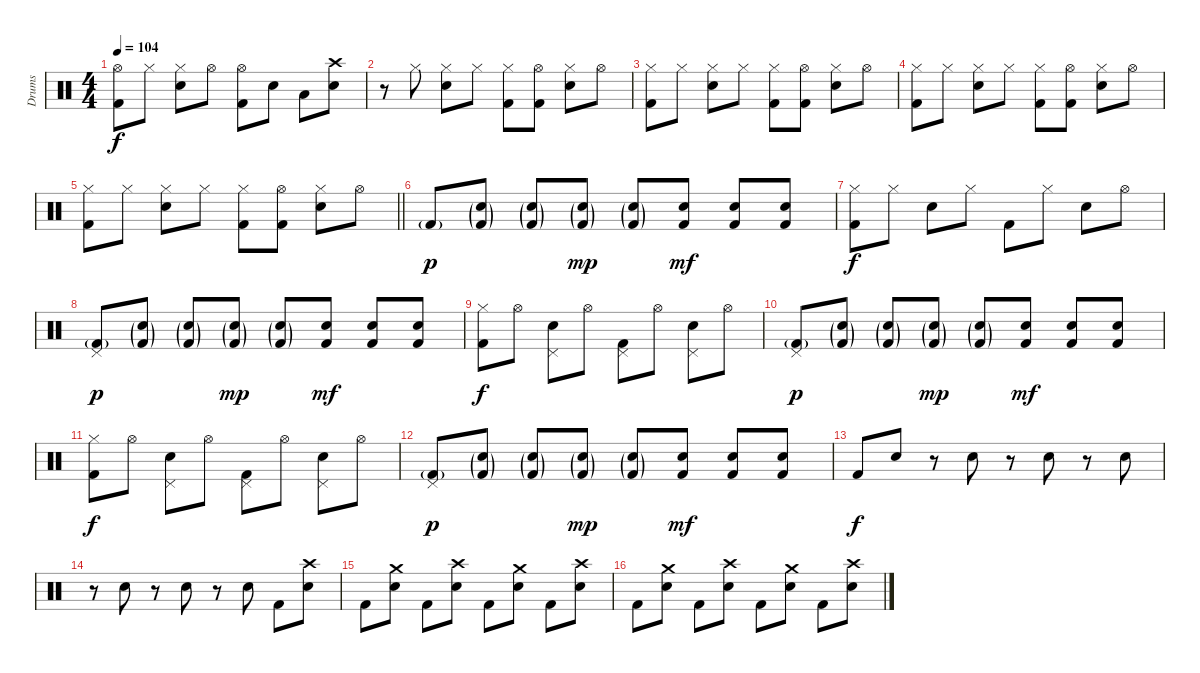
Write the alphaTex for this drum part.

\track ("Drums" "Drums") {instrument percussion}
\staff {score}
\articulation defaults
\ts (4 4)
\tempo 104
\clef neutral
\ks c
("Hi-Hat (open)" "Kick (hit) 2").8{dy f} "Hi-Hat (closed)".8 ("Hi-Hat (closed)" "Snare (hit) 2").8 "Hi-Hat (open)".8 ("Hi-Hat (open)" "Kick (hit) 2").8 "Snare (hit) 2".8 "Low Tom (hit)".8 ("Crash high (hit)" "Snare (hit) 2").8 |
r.8 "Hi-Hat (closed)".8 ("Hi-Hat (closed)" "Snare (hit) 2").8 "Hi-Hat (closed)".8 ("Hi-Hat (closed)" "Kick (hit) 2").8 ("Hi-Hat (open)" "Kick (hit) 2").8 ("Hi-Hat (closed)" "Snare (hit) 2").8 "Hi-Hat (open)".8 |
("Hi-Hat (closed)" "Kick (hit) 2").8 "Hi-Hat (closed)".8 ("Hi-Hat (closed)" "Snare (hit) 2").8 "Hi-Hat (closed)".8 ("Hi-Hat (closed)" "Kick (hit) 2").8 ("Hi-Hat (open)" "Kick (hit) 2").8 ("Hi-Hat (closed)" "Snare (hit) 2").8 "Hi-Hat (open)".8 |
("Hi-Hat (closed)" "Kick (hit) 2").8 "Hi-Hat (closed)".8 ("Hi-Hat (closed)" "Snare (hit) 2").8 "Hi-Hat (closed)".8 ("Hi-Hat (closed)" "Kick (hit) 2").8 ("Hi-Hat (open)" "Kick (hit) 2").8 ("Hi-Hat (closed)" "Snare (hit) 2").8 "Hi-Hat (open)".8 |
\barLineRight lightlight
("Hi-Hat (closed)" "Kick (hit) 2").8 "Hi-Hat (closed)".8 ("Hi-Hat (closed)" "Snare (hit) 2").8 "Hi-Hat (closed)".8 ("Hi-Hat (closed)" "Kick (hit) 2").8 ("Hi-Hat (open)" "Kick (hit) 2").8 ("Hi-Hat (closed)" "Snare (hit) 2").8 "Hi-Hat (open)".8 |
\section ("" "")
"Kick (hit) 2"{g}.8{dy p} ("Snare (hit) 2"{g} "Kick (hit) 2"{g}).8 ("Snare (hit) 2"{g} "Kick (hit) 2"{g}).8 ("Snare (hit) 2"{g} "Kick (hit) 2"{g}).8{dy mp} ("Snare (hit) 2"{g} "Kick (hit) 2"{g}).8 ("Snare (hit) 2" "Kick (hit) 2").8{dy mf} ("Snare (hit) 2" "Kick (hit) 2").8 ("Snare (hit) 2" "Kick (hit) 2").8 |
("Hi-Hat (closed)" "Kick (hit) 2").8{dy f} "Hi-Hat (closed)".8 "Snare (hit) 2".8 "Hi-Hat (closed)".8 "Kick (hit) 2".8 "Hi-Hat (closed)".8 "Snare (hit) 2".8 "Hi-Hat (open)".8 |
("Pedal Hi-Hat (hit)" "Kick (hit) 2"{g}).8{dy p} ("Snare (hit) 2"{g} "Kick (hit) 2"{g}).8 ("Snare (hit) 2"{g} "Kick (hit) 2"{g}).8 ("Snare (hit) 2"{g} "Kick (hit) 2"{g}).8{dy mp} ("Snare (hit) 2"{g} "Kick (hit) 2"{g}).8 ("Snare (hit) 2" "Kick (hit) 2").8{dy mf} ("Snare (hit) 2" "Kick (hit) 2").8 ("Snare (hit) 2" "Kick (hit) 2").8 |
("Hi-Hat (closed)" "Kick (hit) 2").8{dy f} "Hi-Hat (open)".8 ("Pedal Hi-Hat (hit)" "Snare (hit) 2").8 "Hi-Hat (open)".8 ("Pedal Hi-Hat (hit)" "Kick (hit) 2").8 "Hi-Hat (open)".8 ("Pedal Hi-Hat (hit)" "Snare (hit) 2").8 "Hi-Hat (open)".8 |
("Pedal Hi-Hat (hit)" "Kick (hit) 2"{g}).8{dy p} ("Snare (hit) 2"{g} "Kick (hit) 2"{g}).8 ("Snare (hit) 2"{g} "Kick (hit) 2"{g}).8 ("Snare (hit) 2"{g} "Kick (hit) 2"{g}).8{dy mp} ("Snare (hit) 2"{g} "Kick (hit) 2"{g}).8 ("Snare (hit) 2" "Kick (hit) 2").8{dy mf} ("Snare (hit) 2" "Kick (hit) 2").8 ("Snare (hit) 2" "Kick (hit) 2").8 |
("Hi-Hat (closed)" "Kick (hit) 2").8{dy f} "Hi-Hat (open)".8 ("Pedal Hi-Hat (hit)" "Snare (hit) 2").8 "Hi-Hat (open)".8 ("Pedal Hi-Hat (hit)" "Kick (hit) 2").8 "Hi-Hat (open)".8 ("Pedal Hi-Hat (hit)" "Snare (hit) 2").8 "Hi-Hat (open)".8 |
("Pedal Hi-Hat (hit)" "Kick (hit) 2"{g}).8{dy p} ("Snare (hit) 2"{g} "Kick (hit) 2"{g}).8 ("Snare (hit) 2"{g} "Kick (hit) 2"{g}).8 ("Snare (hit) 2"{g} "Kick (hit) 2"{g}).8{dy mp} ("Snare (hit) 2"{g} "Kick (hit) 2"{g}).8 ("Snare (hit) 2" "Kick (hit) 2").8{dy mf} ("Snare (hit) 2" "Kick (hit) 2").8 ("Snare (hit) 2" "Kick (hit) 2").8 |
"Kick (hit) 2".8{dy f} "Snare (hit) 2".8 r.8 "Snare (hit) 2".8 r.8 "Snare (hit) 2".8 r.8 "Snare (hit) 2".8 |
r.8 "Snare (hit) 2".8 r.8 "Snare (hit) 2".8 r.8 "Snare (hit) 2".8 "Kick (hit) 2".8 ("Crash high (hit)" "Snare (hit) 2").8 |
"Kick (hit) 2".8 ("Crash medium (hit)" "Snare (hit) 2").8 "Kick (hit) 2".8 ("Crash high (hit)" "Snare (hit) 2").8 "Kick (hit) 2".8 ("Crash medium (hit)" "Snare (hit) 2").8 "Kick (hit) 2".8 ("Crash high (hit)" "Snare (hit) 2").8 |
"Kick (hit) 2".8 ("Crash medium (hit)" "Snare (hit) 2").8 "Kick (hit) 2".8 ("Crash high (hit)" "Snare (hit) 2").8 "Kick (hit) 2".8 ("Crash medium (hit)" "Snare (hit) 2").8 "Kick (hit) 2".8 ("Crash high (hit)" "Snare (hit) 2").8
